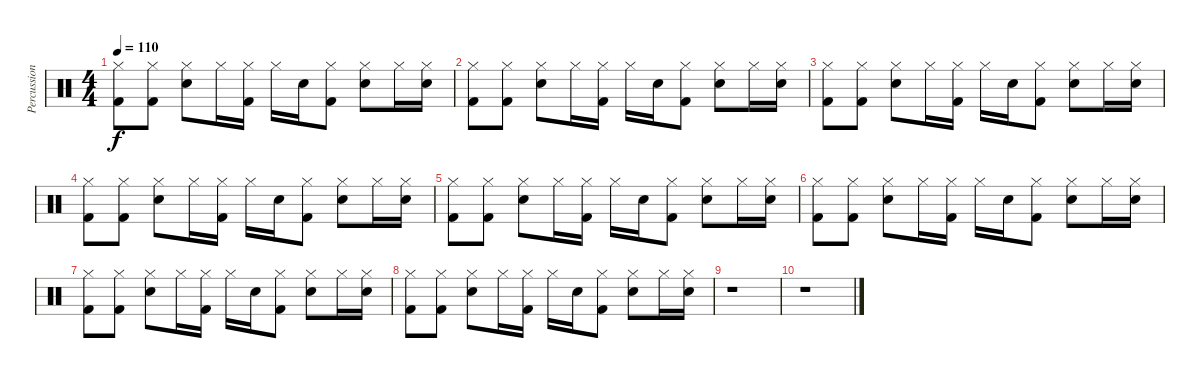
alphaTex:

\track ("Percussion" "Percussion") {instrument percussion}
\staff {score}
\articulation defaults
\ts (4 4)
\tempo 110
\clef neutral
\ks c
("Hi-Hat (closed)" "Kick (hit) 2").8{dy f} ("Hi-Hat (closed)" "Kick (hit) 2").8 ("Hi-Hat (closed)" "Snare (hit) 2").8 "Hi-Hat (closed)".16 ("Hi-Hat (closed)" "Kick (hit) 2").16 "Hi-Hat (closed)".16 "Snare (hit) 2".16 ("Hi-Hat (closed)" "Kick (hit) 2").8 ("Hi-Hat (closed)" "Snare (hit) 2").8 "Hi-Hat (closed)".16 ("Hi-Hat (closed)" "Snare (hit) 2").16 |
("Hi-Hat (closed)" "Kick (hit) 2").8 ("Hi-Hat (closed)" "Kick (hit) 2").8 ("Hi-Hat (closed)" "Snare (hit) 2").8 "Hi-Hat (closed)".16 ("Hi-Hat (closed)" "Kick (hit) 2").16 "Hi-Hat (closed)".16 "Snare (hit) 2".16 ("Hi-Hat (closed)" "Kick (hit) 2").8 ("Hi-Hat (closed)" "Snare (hit) 2").8 "Hi-Hat (closed)".16 ("Hi-Hat (closed)" "Snare (hit) 2").16 |
("Hi-Hat (closed)" "Kick (hit) 2").8 ("Hi-Hat (closed)" "Kick (hit) 2").8 ("Hi-Hat (closed)" "Snare (hit) 2").8 "Hi-Hat (closed)".16 ("Hi-Hat (closed)" "Kick (hit) 2").16 "Hi-Hat (closed)".16 "Snare (hit) 2".16 ("Hi-Hat (closed)" "Kick (hit) 2").8 ("Hi-Hat (closed)" "Snare (hit) 2").8 "Hi-Hat (closed)".16 ("Hi-Hat (closed)" "Snare (hit) 2").16 |
("Hi-Hat (closed)" "Kick (hit) 2").8 ("Hi-Hat (closed)" "Kick (hit) 2").8 ("Hi-Hat (closed)" "Snare (hit) 2").8 "Hi-Hat (closed)".16 ("Hi-Hat (closed)" "Kick (hit) 2").16 "Hi-Hat (closed)".16 "Snare (hit) 2".16 ("Hi-Hat (closed)" "Kick (hit) 2").8 ("Hi-Hat (closed)" "Snare (hit) 2").8 "Hi-Hat (closed)".16 ("Hi-Hat (closed)" "Snare (hit) 2").16 |
("Hi-Hat (closed)" "Kick (hit) 2").8 ("Hi-Hat (closed)" "Kick (hit) 2").8 ("Hi-Hat (closed)" "Snare (hit) 2").8 "Hi-Hat (closed)".16 ("Hi-Hat (closed)" "Kick (hit) 2").16 "Hi-Hat (closed)".16 "Snare (hit) 2".16 ("Hi-Hat (closed)" "Kick (hit) 2").8 ("Hi-Hat (closed)" "Snare (hit) 2").8 "Hi-Hat (closed)".16 ("Hi-Hat (closed)" "Snare (hit) 2").16 |
("Hi-Hat (closed)" "Kick (hit) 2").8 ("Hi-Hat (closed)" "Kick (hit) 2").8 ("Hi-Hat (closed)" "Snare (hit) 2").8 "Hi-Hat (closed)".16 ("Hi-Hat (closed)" "Kick (hit) 2").16 "Hi-Hat (closed)".16 "Snare (hit) 2".16 ("Hi-Hat (closed)" "Kick (hit) 2").8 ("Hi-Hat (closed)" "Snare (hit) 2").8 "Hi-Hat (closed)".16 ("Hi-Hat (closed)" "Snare (hit) 2").16 |
("Hi-Hat (closed)" "Kick (hit) 2").8 ("Hi-Hat (closed)" "Kick (hit) 2").8 ("Hi-Hat (closed)" "Snare (hit) 2").8 "Hi-Hat (closed)".16 ("Hi-Hat (closed)" "Kick (hit) 2").16 "Hi-Hat (closed)".16 "Snare (hit) 2".16 ("Hi-Hat (closed)" "Kick (hit) 2").8 ("Hi-Hat (closed)" "Snare (hit) 2").8 "Hi-Hat (closed)".16 ("Hi-Hat (closed)" "Snare (hit) 2").16 |
("Hi-Hat (closed)" "Kick (hit) 2").8 ("Hi-Hat (closed)" "Kick (hit) 2").8 ("Hi-Hat (closed)" "Snare (hit) 2").8 "Hi-Hat (closed)".16 ("Hi-Hat (closed)" "Kick (hit) 2").16 "Hi-Hat (closed)".16 "Snare (hit) 2".16 ("Hi-Hat (closed)" "Kick (hit) 2").8 ("Hi-Hat (closed)" "Snare (hit) 2").8 "Hi-Hat (closed)".16 ("Hi-Hat (closed)" "Snare (hit) 2").16 |
r.1 |
r.1
